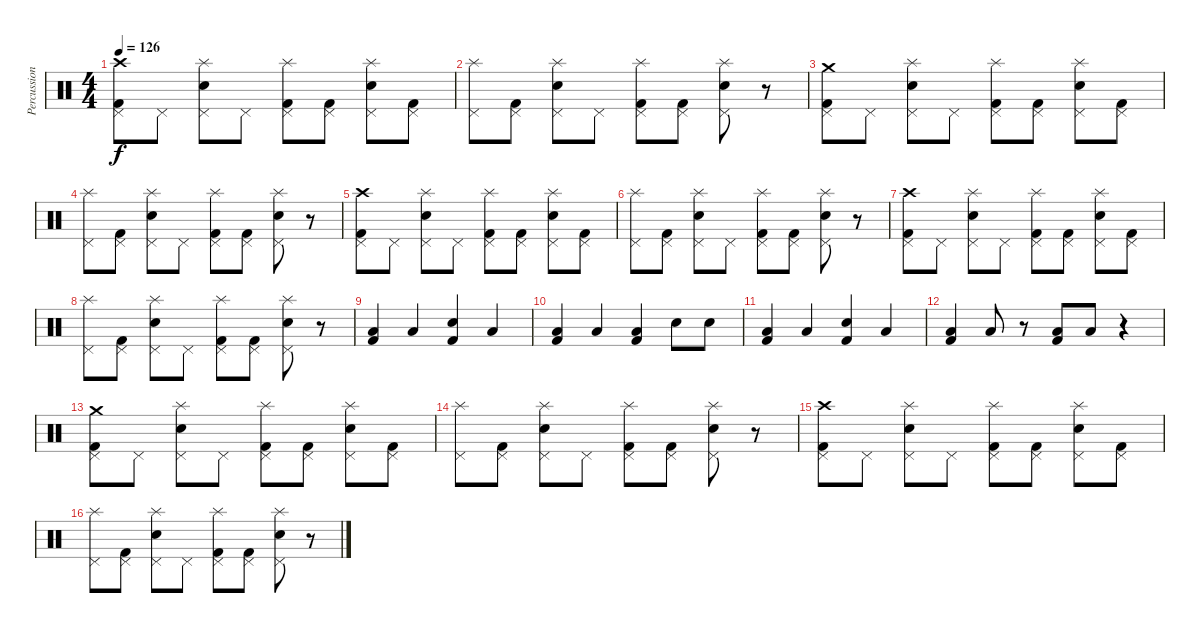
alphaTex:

\track ("Percussion" "Percussion") {instrument percussion}
\staff {score}
\articulation defaults
\ts (4 4)
\tempo 126
\clef neutral
\ks c
("Pedal Hi-Hat (hit)" "Kick (hit) 2" "Crash high (hit)").8{dy f} "Pedal Hi-Hat (hit)".8 ("Pedal Hi-Hat (hit)" "Electric Snare (hit)" "Splash (hit)").8 "Pedal Hi-Hat (hit)".8 ("Pedal Hi-Hat (hit)" "Kick (hit) 2" "Splash (hit)").8 ("Kick (hit) 2" "Pedal Hi-Hat (hit)").8 ("Splash (hit)" "Electric Snare (hit)" "Pedal Hi-Hat (hit)").8 ("Pedal Hi-Hat (hit)" "Kick (hit) 2").8 |
("Splash (hit)" "Pedal Hi-Hat (hit)").8 ("Kick (hit) 2" "Pedal Hi-Hat (hit)").8 ("Splash (hit)" "Electric Snare (hit)" "Pedal Hi-Hat (hit)").8 "Pedal Hi-Hat (hit)".8 ("Splash (hit)" "Kick (hit) 2" "Pedal Hi-Hat (hit)").8 ("Pedal Hi-Hat (hit)" "Kick (hit) 2").8 ("Pedal Hi-Hat (hit)" "Electric Snare (hit)" "Splash (hit)").8 r.8 |
("Pedal Hi-Hat (hit)" "Kick (hit) 2" "Crash medium (hit)").8 "Pedal Hi-Hat (hit)".8 ("Pedal Hi-Hat (hit)" "Splash (hit)" "Electric Snare (hit)").8 "Pedal Hi-Hat (hit)".8 ("Pedal Hi-Hat (hit)" "Splash (hit)" "Kick (hit) 2").8 ("Pedal Hi-Hat (hit)" "Kick (hit) 2").8 ("Pedal Hi-Hat (hit)" "Splash (hit)" "Electric Snare (hit)").8 ("Pedal Hi-Hat (hit)" "Kick (hit) 2").8 |
("Pedal Hi-Hat (hit)" "Splash (hit)").8 ("Pedal Hi-Hat (hit)" "Kick (hit) 2").8 ("Pedal Hi-Hat (hit)" "Splash (hit)" "Electric Snare (hit)").8 "Pedal Hi-Hat (hit)".8 ("Pedal Hi-Hat (hit)" "Splash (hit)" "Kick (hit) 2").8 ("Pedal Hi-Hat (hit)" "Kick (hit) 2").8 ("Pedal Hi-Hat (hit)" "Splash (hit)" "Electric Snare (hit)").8 r.8 |
("Pedal Hi-Hat (hit)" "Kick (hit) 2" "Crash high (hit)").8 "Pedal Hi-Hat (hit)".8 ("Pedal Hi-Hat (hit)" "Electric Snare (hit)" "Splash (hit)").8 "Pedal Hi-Hat (hit)".8 ("Pedal Hi-Hat (hit)" "Kick (hit) 2" "Splash (hit)").8 ("Kick (hit) 2" "Pedal Hi-Hat (hit)").8 ("Splash (hit)" "Electric Snare (hit)" "Pedal Hi-Hat (hit)").8 ("Pedal Hi-Hat (hit)" "Kick (hit) 2").8 |
("Splash (hit)" "Pedal Hi-Hat (hit)").8 ("Kick (hit) 2" "Pedal Hi-Hat (hit)").8 ("Splash (hit)" "Electric Snare (hit)" "Pedal Hi-Hat (hit)").8 "Pedal Hi-Hat (hit)".8 ("Splash (hit)" "Kick (hit) 2" "Pedal Hi-Hat (hit)").8 ("Pedal Hi-Hat (hit)" "Kick (hit) 2").8 ("Pedal Hi-Hat (hit)" "Electric Snare (hit)" "Splash (hit)").8 r.8 |
("Pedal Hi-Hat (hit)" "Kick (hit) 2" "Crash high (hit)").8 "Pedal Hi-Hat (hit)".8 ("Pedal Hi-Hat (hit)" "Electric Snare (hit)" "Splash (hit)").8 "Pedal Hi-Hat (hit)".8 ("Pedal Hi-Hat (hit)" "Kick (hit) 2" "Splash (hit)").8 ("Kick (hit) 2" "Pedal Hi-Hat (hit)").8 ("Splash (hit)" "Electric Snare (hit)" "Pedal Hi-Hat (hit)").8 ("Pedal Hi-Hat (hit)" "Kick (hit) 2").8 |
("Splash (hit)" "Pedal Hi-Hat (hit)").8 ("Kick (hit) 2" "Pedal Hi-Hat (hit)").8 ("Splash (hit)" "Electric Snare (hit)" "Pedal Hi-Hat (hit)").8 "Pedal Hi-Hat (hit)".8 ("Splash (hit)" "Kick (hit) 2" "Pedal Hi-Hat (hit)").8 ("Pedal Hi-Hat (hit)" "Kick (hit) 2").8 ("Pedal Hi-Hat (hit)" "Electric Snare (hit)" "Splash (hit)").8 r.8 |
("Kick (hit) 2" "Low Tom (hit)").4 "Low Tom (hit)".4 ("Kick (hit) 2" "Snare (hit) 2").4 "Low Tom (hit)".4 |
("Kick (hit) 2" "Low Tom (hit)").4 "Low Tom (hit)".4 ("Kick (hit) 2" "Low Tom (hit)").4 "Electric Snare (hit)".8 "Electric Snare (hit)".8 |
("Kick (hit) 2" "Low Tom (hit)").4 "Low Tom (hit)".4 ("Kick (hit) 2" "Snare (hit) 2").4 "Low Tom (hit)".4 |
("Kick (hit) 2" "Low Tom (hit)").4 "Low Tom (hit)".8 r.8 ("Low Tom (hit)" "Kick (hit) 2").8 "Low Tom (hit)".8 r.4 |
("Pedal Hi-Hat (hit)" "Kick (hit) 2" "Crash medium (hit)").8 "Pedal Hi-Hat (hit)".8 ("Pedal Hi-Hat (hit)" "Splash (hit)" "Electric Snare (hit)").8 "Pedal Hi-Hat (hit)".8 ("Pedal Hi-Hat (hit)" "Splash (hit)" "Kick (hit) 2").8 ("Pedal Hi-Hat (hit)" "Kick (hit) 2").8 ("Pedal Hi-Hat (hit)" "Splash (hit)" "Electric Snare (hit)").8 ("Pedal Hi-Hat (hit)" "Kick (hit) 2").8 |
("Pedal Hi-Hat (hit)" "Splash (hit)").8 ("Pedal Hi-Hat (hit)" "Kick (hit) 2").8 ("Pedal Hi-Hat (hit)" "Splash (hit)" "Electric Snare (hit)").8 "Pedal Hi-Hat (hit)".8 ("Pedal Hi-Hat (hit)" "Splash (hit)" "Kick (hit) 2").8 ("Pedal Hi-Hat (hit)" "Kick (hit) 2").8 ("Pedal Hi-Hat (hit)" "Splash (hit)" "Electric Snare (hit)").8 r.8 |
("Pedal Hi-Hat (hit)" "Kick (hit) 2" "Crash high (hit)").8 "Pedal Hi-Hat (hit)".8 ("Pedal Hi-Hat (hit)" "Electric Snare (hit)" "Splash (hit)").8 "Pedal Hi-Hat (hit)".8 ("Pedal Hi-Hat (hit)" "Kick (hit) 2" "Splash (hit)").8 ("Kick (hit) 2" "Pedal Hi-Hat (hit)").8 ("Splash (hit)" "Electric Snare (hit)" "Pedal Hi-Hat (hit)").8 ("Pedal Hi-Hat (hit)" "Kick (hit) 2").8 |
("Splash (hit)" "Pedal Hi-Hat (hit)").8 ("Kick (hit) 2" "Pedal Hi-Hat (hit)").8 ("Splash (hit)" "Electric Snare (hit)" "Pedal Hi-Hat (hit)").8 "Pedal Hi-Hat (hit)".8 ("Splash (hit)" "Kick (hit) 2" "Pedal Hi-Hat (hit)").8 ("Pedal Hi-Hat (hit)" "Kick (hit) 2").8 ("Pedal Hi-Hat (hit)" "Electric Snare (hit)" "Splash (hit)").8 r.8
